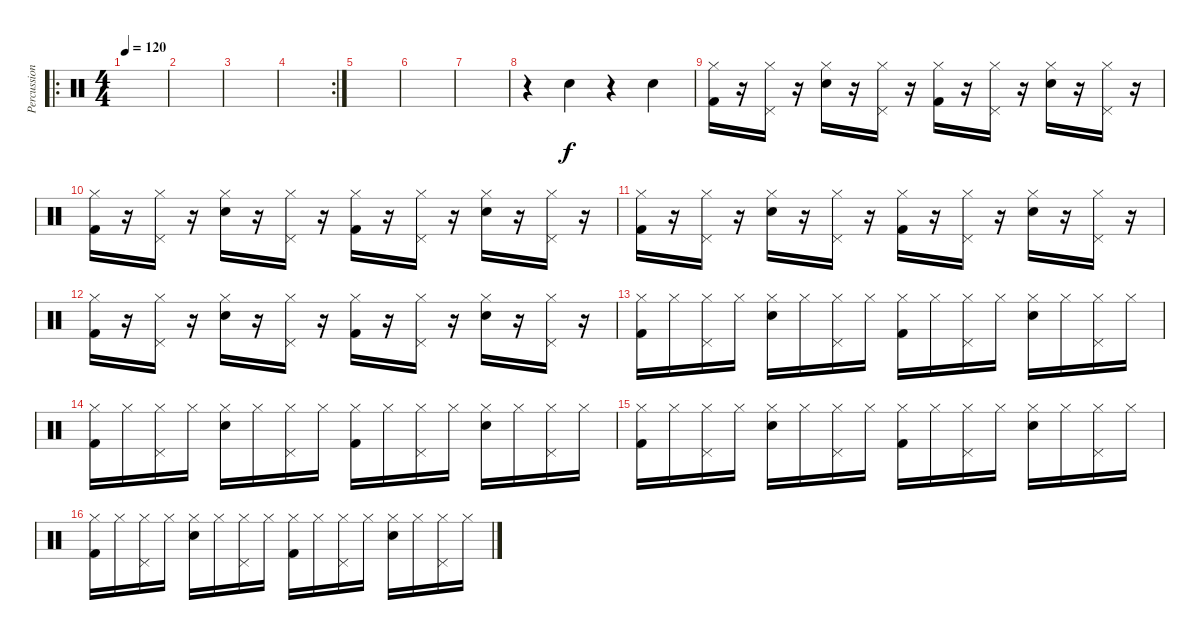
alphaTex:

\track ("Percussion" "Percussion") {instrument percussion}
\staff {score}
\articulation defaults
\ro
\ts (4 4)
\tempo 120
\clef neutral
\ks c
|
|
|
\rc 2
|
|
|
|
r.4 "Snare (hit) 2".4 r.4 "Snare (hit) 2".4 |
("Hi-Hat (closed)" "Kick (hit) 2").16 r.16 ("Hi-Hat (closed)" "Pedal Hi-Hat (hit)").16 r.16 ("Hi-Hat (closed)" "Snare (hit) 2").16 r.16 ("Hi-Hat (closed)" "Pedal Hi-Hat (hit)").16 r.16 ("Hi-Hat (closed)" "Kick (hit) 2").16 r.16 ("Hi-Hat (closed)" "Pedal Hi-Hat (hit)").16 r.16 ("Hi-Hat (closed)" "Snare (hit) 2").16 r.16 ("Hi-Hat (closed)" "Pedal Hi-Hat (hit)").16 r.16 |
("Hi-Hat (closed)" "Kick (hit) 2").16 r.16 ("Hi-Hat (closed)" "Pedal Hi-Hat (hit)").16 r.16 ("Hi-Hat (closed)" "Snare (hit) 2").16 r.16 ("Hi-Hat (closed)" "Pedal Hi-Hat (hit)").16 r.16 ("Hi-Hat (closed)" "Kick (hit) 2").16 r.16 ("Hi-Hat (closed)" "Pedal Hi-Hat (hit)").16 r.16 ("Hi-Hat (closed)" "Snare (hit) 2").16 r.16 ("Hi-Hat (closed)" "Pedal Hi-Hat (hit)").16 r.16 |
("Hi-Hat (closed)" "Kick (hit) 2").16 r.16 ("Hi-Hat (closed)" "Pedal Hi-Hat (hit)").16 r.16 ("Hi-Hat (closed)" "Snare (hit) 2").16 r.16 ("Hi-Hat (closed)" "Pedal Hi-Hat (hit)").16 r.16 ("Hi-Hat (closed)" "Kick (hit) 2").16 r.16 ("Hi-Hat (closed)" "Pedal Hi-Hat (hit)").16 r.16 ("Hi-Hat (closed)" "Snare (hit) 2").16 r.16 ("Hi-Hat (closed)" "Pedal Hi-Hat (hit)").16 r.16 |
("Hi-Hat (closed)" "Kick (hit) 2").16 r.16 ("Hi-Hat (closed)" "Pedal Hi-Hat (hit)").16 r.16 ("Hi-Hat (closed)" "Snare (hit) 2").16 r.16 ("Hi-Hat (closed)" "Pedal Hi-Hat (hit)").16 r.16 ("Hi-Hat (closed)" "Kick (hit) 2").16 r.16 ("Hi-Hat (closed)" "Pedal Hi-Hat (hit)").16 r.16 ("Hi-Hat (closed)" "Snare (hit) 2").16 r.16 ("Hi-Hat (closed)" "Pedal Hi-Hat (hit)").16 r.16 |
("Hi-Hat (closed)" "Kick (hit) 2").16 "Hi-Hat (closed)".16 ("Hi-Hat (closed)" "Pedal Hi-Hat (hit)").16 "Hi-Hat (closed)".16 ("Hi-Hat (closed)" "Snare (hit) 2").16 "Hi-Hat (closed)".16 ("Hi-Hat (closed)" "Pedal Hi-Hat (hit)").16 "Hi-Hat (closed)".16 ("Hi-Hat (closed)" "Kick (hit) 2").16 "Hi-Hat (closed)".16 ("Hi-Hat (closed)" "Pedal Hi-Hat (hit)").16 "Hi-Hat (closed)".16 ("Hi-Hat (closed)" "Snare (hit) 2").16 "Hi-Hat (closed)".16 ("Hi-Hat (closed)" "Pedal Hi-Hat (hit)").16 "Hi-Hat (closed)".16 |
("Hi-Hat (closed)" "Kick (hit) 2").16 "Hi-Hat (closed)".16 ("Hi-Hat (closed)" "Pedal Hi-Hat (hit)").16 "Hi-Hat (closed)".16 ("Hi-Hat (closed)" "Snare (hit) 2").16 "Hi-Hat (closed)".16 ("Hi-Hat (closed)" "Pedal Hi-Hat (hit)").16 "Hi-Hat (closed)".16 ("Hi-Hat (closed)" "Kick (hit) 2").16 "Hi-Hat (closed)".16 ("Hi-Hat (closed)" "Pedal Hi-Hat (hit)").16 "Hi-Hat (closed)".16 ("Hi-Hat (closed)" "Snare (hit) 2").16 "Hi-Hat (closed)".16 ("Hi-Hat (closed)" "Pedal Hi-Hat (hit)").16 "Hi-Hat (closed)".16 |
("Hi-Hat (closed)" "Kick (hit) 2").16 "Hi-Hat (closed)".16 ("Hi-Hat (closed)" "Pedal Hi-Hat (hit)").16 "Hi-Hat (closed)".16 ("Hi-Hat (closed)" "Snare (hit) 2").16 "Hi-Hat (closed)".16 ("Hi-Hat (closed)" "Pedal Hi-Hat (hit)").16 "Hi-Hat (closed)".16 ("Hi-Hat (closed)" "Kick (hit) 2").16 "Hi-Hat (closed)".16 ("Hi-Hat (closed)" "Pedal Hi-Hat (hit)").16 "Hi-Hat (closed)".16 ("Hi-Hat (closed)" "Snare (hit) 2").16 "Hi-Hat (closed)".16 ("Hi-Hat (closed)" "Pedal Hi-Hat (hit)").16 "Hi-Hat (closed)".16 |
("Hi-Hat (closed)" "Kick (hit) 2").16 "Hi-Hat (closed)".16 ("Hi-Hat (closed)" "Pedal Hi-Hat (hit)").16 "Hi-Hat (closed)".16 ("Hi-Hat (closed)" "Snare (hit) 2").16 "Hi-Hat (closed)".16 ("Hi-Hat (closed)" "Pedal Hi-Hat (hit)").16 "Hi-Hat (closed)".16 ("Hi-Hat (closed)" "Kick (hit) 2").16 "Hi-Hat (closed)".16 ("Hi-Hat (closed)" "Pedal Hi-Hat (hit)").16 "Hi-Hat (closed)".16 ("Hi-Hat (closed)" "Snare (hit) 2").16 "Hi-Hat (closed)".16 ("Hi-Hat (closed)" "Pedal Hi-Hat (hit)").16 "Hi-Hat (closed)".16
